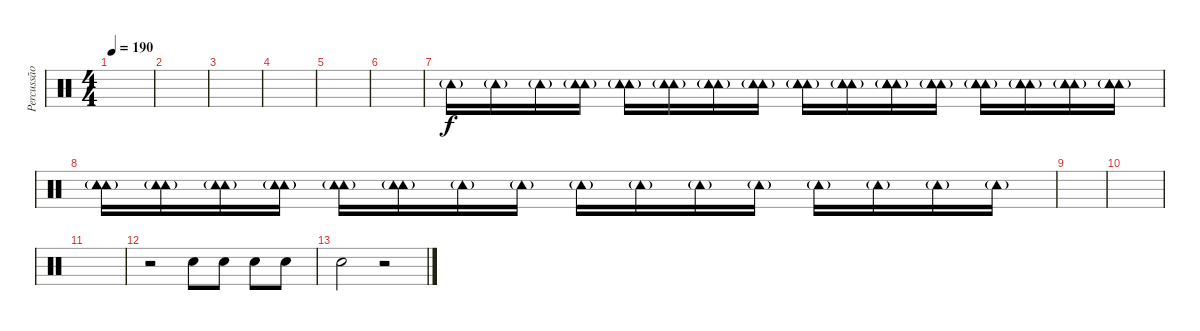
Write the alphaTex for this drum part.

\track ("Percussão" "Percussão") {instrument percussion}
\staff {score}
\articulation defaults
\ts (4 4)
\tempo 190
\clef neutral
\ks c
|
|
|
|
|
|
"Tambourine (hit)"{g}.16 "Tambourine (hit)"{g}.16 "Tambourine (hit)"{g}.16 ("Tambourine (hit)"{g} "Tambourine (hit)"{g}).16 ("Tambourine (hit)"{g} "Tambourine (hit)"{g}).16 ("Tambourine (hit)"{g} "Tambourine (hit)"{g}).16 ("Tambourine (hit)"{g} "Tambourine (hit)"{g}).16 ("Tambourine (hit)"{g} "Tambourine (hit)"{g}).16 ("Tambourine (hit)"{g} "Tambourine (hit)"{g} "Tambourine (hit)"{g}).16 ("Tambourine (hit)"{g} "Tambourine (hit)"{g} "Tambourine (hit)"{g}).16 ("Tambourine (hit)"{g} "Tambourine (hit)"{g} "Tambourine (hit)"{g}).16 ("Tambourine (hit)"{g} "Tambourine (hit)"{g} "Tambourine (hit)"{g}).16 ("Tambourine (hit)"{g} "Tambourine (hit)"{g} "Tambourine (hit)"{g}).16 ("Tambourine (hit)"{g} "Tambourine (hit)"{g} "Tambourine (hit)"{g}).16 ("Tambourine (hit)"{g} "Tambourine (hit)"{g} "Tambourine (hit)"{g}).16 ("Tambourine (hit)"{g} "Tambourine (hit)"{g} "Tambourine (hit)"{g}).16 |
("Tambourine (hit)"{g} "Tambourine (hit)"{g} "Tambourine (hit)"{g}).16 ("Tambourine (hit)"{g} "Tambourine (hit)"{g}).16 ("Tambourine (hit)"{g} "Tambourine (hit)"{g}).16 ("Tambourine (hit)"{g} "Tambourine (hit)"{g}).16 ("Tambourine (hit)"{g} "Tambourine (hit)"{g}).16 ("Tambourine (hit)"{g} "Tambourine (hit)"{g}).16 "Tambourine (hit)"{g}.16 "Tambourine (hit)"{g}.16 "Tambourine (hit)"{g}.16 "Tambourine (hit)"{g}.16 "Tambourine (hit)"{g}.16 "Tambourine (hit)"{g}.16 "Tambourine (hit)"{g}.16 "Tambourine (hit)"{g}.16 "Tambourine (hit)"{g}.16 "Tambourine (hit)"{g}.16 |
|
|
|
r.2 "Hand Clap (hit)".8{dy f} "Hand Clap (hit)".8 "Hand Clap (hit)".8 "Hand Clap (hit)".8 |
"Hand Clap (hit)".2 r.2
